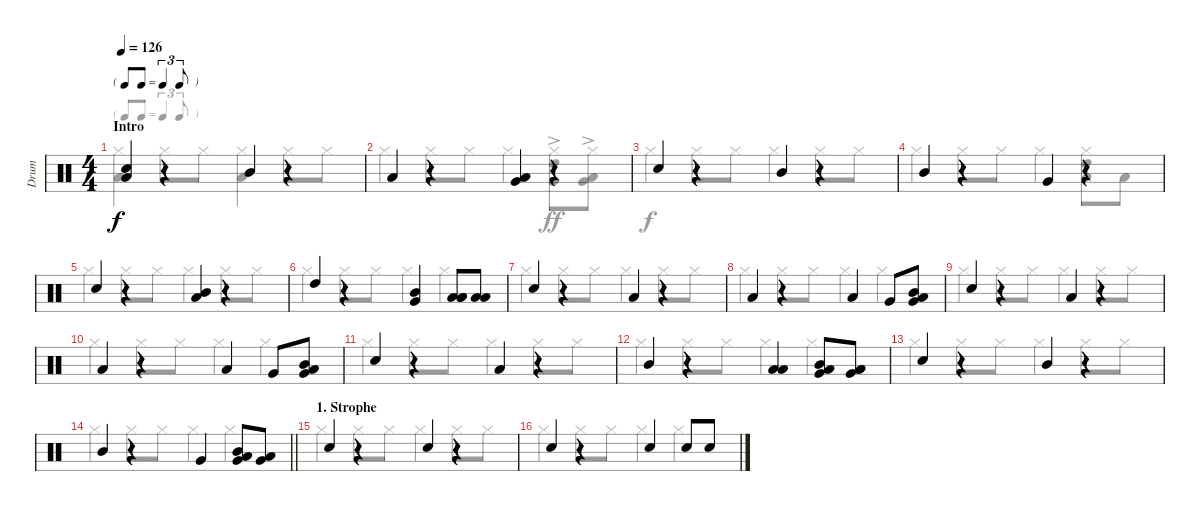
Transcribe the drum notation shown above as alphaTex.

\track ("Drum" "Drum") {instrument percussion}
\staff {score}
\articulation defaults
\voice
\ts (4 4)
\tf triplet8th
\section ("" "Intro")
\tempo 126
\clef neutral
\ks c
("Low Tom (hit)" "Snare (hit) 2").4{dy f} r.4 "Mid Tom (hit)".4 r.4 |
"Low Tom (hit)".4 r.4 ("Low Floor Tom (hit)" "Very Low Tom (hit)").4 r.4 |
"Snare (hit) 2".4 r.4 "Mid Tom (hit)".4 r.4 |
"Mid Tom (hit)".4 r.4 "Very Low Tom (hit)".4 r.4 |
"Snare (hit) 2".4 r.4 ("Mid Tom (hit)" "Low Floor Tom (hit)").4 r.4 |
"High Tom (hit)".4 r.4 ("Very Low Tom (hit)" "Mid Tom (hit)").4 ("Low Tom (hit)" "Low Tom (hit)" "Low Floor Tom (hit)").8 ("Low Tom (hit)" "Low Floor Tom (hit)").8 |
"Snare (hit) 2".4 r.4 "Low Tom (hit)".4 r.4 |
"Low Tom (hit)".4 r.4 "Low Tom (hit)".4 "Very Low Tom (hit)".8 ("Low Floor Tom (hit)" "Mid Tom (hit)" "Very Low Tom (hit)").8 |
"Snare (hit) 2".4 r.4 "Low Tom (hit)".4 r.4 |
"Low Tom (hit)".4 r.4 "Low Tom (hit)".4 "Very Low Tom (hit)".8 ("Low Floor Tom (hit)" "Mid Tom (hit)" "Very Low Tom (hit)").8 |
"Snare (hit) 2".4 r.4 "Low Tom (hit)".4 r.4 |
"Mid Tom (hit)".4 r.4 ("Low Floor Tom (hit)" "Low Tom (hit)").4 ("Mid Tom (hit)" "Low Tom (hit)" "Very Low Tom (hit)").8 ("Low Tom (hit)" "Very Low Tom (hit)" "Low Floor Tom (hit)").8 |
"Snare (hit) 2".4 r.4 "Mid Tom (hit)".4 r.4 |
\barLineRight lightlight "Mid Tom (hit)".4
r.4 "Very Low Tom (hit)".4 ("Mid Tom (hit)" "Low Tom (hit)" "Very Low Tom (hit)").8 ("Very Low Tom (hit)" "Low Floor Tom (hit)").8 |
\section ("" "1. Strophe")
"Snare (hit) 2".4 r.4 "Snare (hit) 2".4 r.4 |
"Snare (hit) 2".4 r.4 "Snare (hit) 2".4 "Snare (hit) 2".8 "Snare (hit) 2".8
\voice
\clef neutral
\ottava regular
\simile none
\ks c
("Hi-Hat (closed)" "Low Floor Tom (hit)").4{dy f} "Hi-Hat (closed)".8 "Hi-Hat (closed)".8 ("Hi-Hat (closed)" "Low Floor Tom (hit)").4 "Hi-Hat (closed)".8 "Hi-Hat (closed)".8 |
"Hi-Hat (closed)".4 "Hi-Hat (closed)".8 "Hi-Hat (closed)".8 "Hi-Hat (closed)".4 ("Hi-Hat (closed)"{ac} "High Tom (hit)"{ac} "Very Low Tom (hit)"{ac}).8{dy ff} ("Hi-Hat (closed)"{ac} "Very Low Tom (hit)"{ac} "Low Tom (hit)"{ac}).8 |
"Hi-Hat (closed)".4{dy f} "Hi-Hat (closed)".8 "Hi-Hat (closed)".8 "Hi-Hat (closed)".4 "Hi-Hat (closed)".8 "Hi-Hat (closed)".8 |
"Hi-Hat (closed)".4 "Hi-Hat (closed)".8 "Hi-Hat (closed)".8 "Hi-Hat (closed)".4 ("High Tom (hit)" "Low Tom (hit)" "Hi-Hat (closed)").8 "Low Tom (hit)".8 |
"Hi-Hat (closed)".4 "Hi-Hat (closed)".8 "Hi-Hat (closed)".8 "Hi-Hat (closed)".4 "Hi-Hat (closed)".8 "Hi-Hat (closed)".8 |
"Hi-Hat (closed)".4 "Hi-Hat (closed)".8 "Hi-Hat (closed)".8 "Hi-Hat (closed)".4 "Hi-Hat (closed)".4 |
"Hi-Hat (closed)".4 "Hi-Hat (closed)".8 "Hi-Hat (closed)".8 "Hi-Hat (closed)".4 "Hi-Hat (closed)".8 "Hi-Hat (closed)".8 |
"Hi-Hat (closed)".4 "Hi-Hat (closed)".8 "Hi-Hat (closed)".8 "Hi-Hat (closed)".4 "Hi-Hat (closed)".4 |
"Hi-Hat (closed)".4 "Hi-Hat (closed)".8 "Hi-Hat (closed)".8 "Hi-Hat (closed)".4 "Hi-Hat (closed)".8 "Hi-Hat (closed)".8 |
"Hi-Hat (closed)".4 "Hi-Hat (closed)".8 "Hi-Hat (closed)".8 "Hi-Hat (closed)".4 "Hi-Hat (closed)".4 |
"Hi-Hat (closed)".4 "Hi-Hat (closed)".8 "Hi-Hat (closed)".8 "Hi-Hat (closed)".4 "Hi-Hat (closed)".8 "Hi-Hat (closed)".8 |
"Hi-Hat (closed)".4 "Hi-Hat (closed)".8 "Hi-Hat (closed)".8 "Hi-Hat (closed)".4 "Hi-Hat (closed)".4 |
"Hi-Hat (closed)".4 "Hi-Hat (closed)".8 "Hi-Hat (closed)".8 "Hi-Hat (closed)".4 "Hi-Hat (closed)".8 "Hi-Hat (closed)".8 |
\barLineRight lightlight "Hi-Hat (closed)".4 "Hi-Hat (closed)".8 "Hi-Hat (closed)".8 "Hi-Hat (closed)".4 "Hi-Hat (closed)".4
|
"Hi-Hat (closed)".4 "Hi-Hat (closed)".8 "Hi-Hat (closed)".8 "Hi-Hat (closed)".4 "Hi-Hat (closed)".8 "Hi-Hat (closed)".8 |
"Hi-Hat (closed)".4 "Hi-Hat (closed)".8 "Hi-Hat (closed)".8 "Hi-Hat (closed)".4 "Hi-Hat (closed)".4
